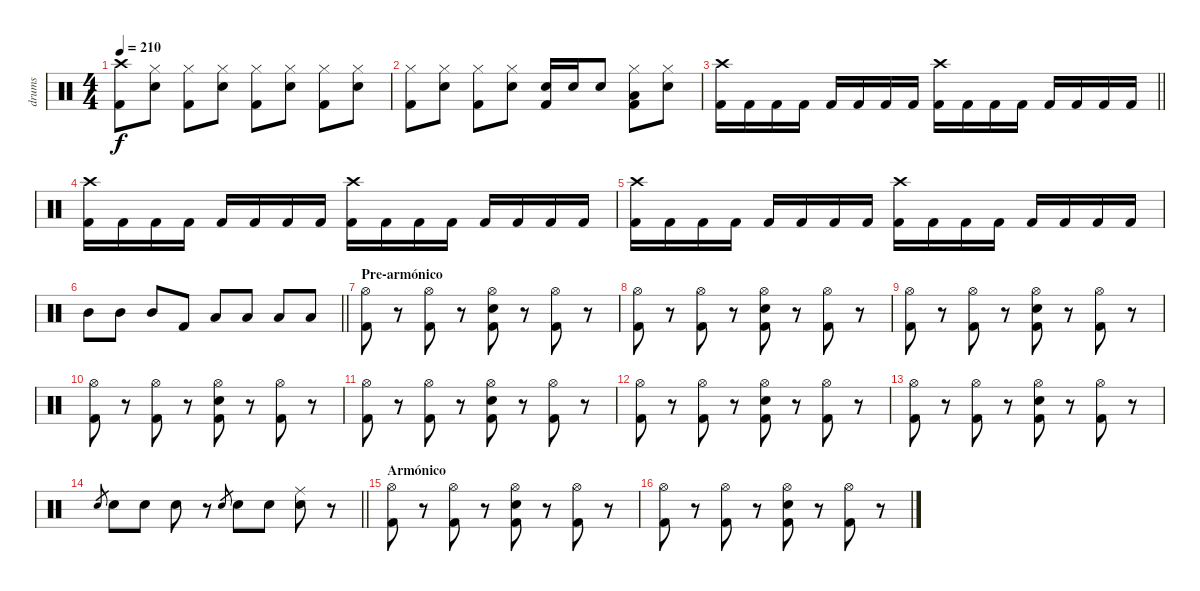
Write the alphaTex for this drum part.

\track ("drums" "drums") {instrument percussion}
\staff {score}
\articulation defaults
\ts (4 4)
\tempo 210
\clef neutral
\ks c
("Crash high (hit)" "Kick (hit) 2").8{dy f} ("Hi-Hat (closed)" "Electric Snare (hit)").8 ("Hi-Hat (closed)" "Kick (hit) 2").8 ("Hi-Hat (closed)" "Electric Snare (hit)").8 ("Hi-Hat (closed)" "Kick (hit) 2").8 ("Hi-Hat (closed)" "Electric Snare (hit)").8 ("Hi-Hat (closed)" "Kick (hit) 2").8 ("Hi-Hat (closed)" "Electric Snare (hit)").8 |
("Hi-Hat (closed)" "Kick (hit) 2").8 ("Hi-Hat (closed)" "Electric Snare (hit)").8 ("Hi-Hat (closed)" "Kick (hit) 2").8 ("Hi-Hat (closed)" "Electric Snare (hit)").8 ("Electric Snare (hit)" "Kick (hit) 2").16 "Electric Snare (hit)".16 "Electric Snare (hit)".8 ("Hi-Hat (closed)" "Low Floor Tom (hit)" "Kick (hit) 2").8 ("Hi-Hat (closed)" "Electric Snare (hit)").8 |
\barLineRight lightlight
("Crash high (hit)" "Kick (hit) 2").16 "Kick (hit) 2".16 "Kick (hit) 2".16 "Kick (hit) 2".16 "Kick (hit) 2".16 "Kick (hit) 2".16 "Kick (hit) 2".16 "Kick (hit) 2".16 ("Crash high (hit)" "Kick (hit) 2").16 "Kick (hit) 2".16 "Kick (hit) 2".16 "Kick (hit) 2".16 "Kick (hit) 2".16 "Kick (hit) 2".16 "Kick (hit) 2".16 "Kick (hit) 2".16 |
("Crash high (hit)" "Kick (hit) 2").16 "Kick (hit) 2".16 "Kick (hit) 2".16 "Kick (hit) 2".16 "Kick (hit) 2".16 "Kick (hit) 2".16 "Kick (hit) 2".16 "Kick (hit) 2".16 ("Crash high (hit)" "Kick (hit) 2").16 "Kick (hit) 2".16 "Kick (hit) 2".16 "Kick (hit) 2".16 "Kick (hit) 2".16 "Kick (hit) 2".16 "Kick (hit) 2".16 "Kick (hit) 2".16 |
("Crash high (hit)" "Kick (hit) 2").16 "Kick (hit) 2".16 "Kick (hit) 2".16 "Kick (hit) 2".16 "Kick (hit) 2".16 "Kick (hit) 2".16 "Kick (hit) 2".16 "Kick (hit) 2".16 ("Crash high (hit)" "Kick (hit) 2").16 "Kick (hit) 2".16 "Kick (hit) 2".16 "Kick (hit) 2".16 "Kick (hit) 2".16 "Kick (hit) 2".16 "Kick (hit) 2".16 "Kick (hit) 2".16 |
\barLineRight lightlight "Mid Tom (hit)".8 "Mid Tom (hit)".8 "Mid Tom (hit)".8 "Kick (hit) 2".8 "Low Tom (hit)".8 "Low Tom (hit)".8 "Low Tom (hit)".8 "Low Tom (hit)".8
|
\section ("" "Pre-armónico")
("Hi-Hat (open)" "Kick (hit) 2").8 r.8 ("Hi-Hat (open)" "Kick (hit) 2").8 r.8 ("Hi-Hat (open)" "Electric Snare (hit)" "Kick (hit) 2").8 r.8 ("Hi-Hat (open)" "Kick (hit) 2").8 r.8 |
("Hi-Hat (open)" "Kick (hit) 2").8 r.8 ("Hi-Hat (open)" "Kick (hit) 2").8 r.8 ("Hi-Hat (open)" "Electric Snare (hit)" "Kick (hit) 2").8 r.8 ("Hi-Hat (open)" "Kick (hit) 2").8 r.8 |
("Hi-Hat (open)" "Kick (hit) 2").8 r.8 ("Hi-Hat (open)" "Kick (hit) 2").8 r.8 ("Hi-Hat (open)" "Electric Snare (hit)" "Kick (hit) 2").8 r.8 ("Hi-Hat (open)" "Kick (hit) 2").8 r.8 |
("Hi-Hat (open)" "Kick (hit) 2").8 r.8 ("Hi-Hat (open)" "Kick (hit) 2").8 r.8 ("Hi-Hat (open)" "Electric Snare (hit)" "Kick (hit) 2").8 r.8 ("Hi-Hat (open)" "Kick (hit) 2").8 r.8 |
("Hi-Hat (open)" "Kick (hit) 2").8 r.8 ("Hi-Hat (open)" "Kick (hit) 2").8 r.8 ("Hi-Hat (open)" "Electric Snare (hit)" "Kick (hit) 2").8 r.8 ("Hi-Hat (open)" "Kick (hit) 2").8 r.8 |
("Hi-Hat (open)" "Kick (hit) 2").8 r.8 ("Hi-Hat (open)" "Kick (hit) 2").8 r.8 ("Hi-Hat (open)" "Electric Snare (hit)" "Kick (hit) 2").8 r.8 ("Hi-Hat (open)" "Kick (hit) 2").8 r.8 |
("Hi-Hat (open)" "Kick (hit) 2").8 r.8 ("Hi-Hat (open)" "Kick (hit) 2").8 r.8 ("Hi-Hat (open)" "Electric Snare (hit)" "Kick (hit) 2").8 r.8 ("Hi-Hat (open)" "Kick (hit) 2").8 r.8 |
\barLineRight lightlight "Electric Snare (hit)".8{gr} "Electric Snare (hit)".8 "Electric Snare (hit)".8 "Electric Snare (hit)".8
r.8 "Electric Snare (hit)".8{gr} "Electric Snare (hit)".8 "Electric Snare (hit)".8 ("Ride (middle)" "Electric Snare (hit)").8 r.8 |
\section ("" "Armónico")
("Hi-Hat (open)" "Kick (hit) 2").8 r.8 ("Hi-Hat (open)" "Kick (hit) 2").8 r.8 ("Hi-Hat (open)" "Electric Snare (hit)" "Kick (hit) 2").8 r.8 ("Hi-Hat (open)" "Kick (hit) 2").8 r.8 |
("Hi-Hat (open)" "Kick (hit) 2").8 r.8 ("Hi-Hat (open)" "Kick (hit) 2").8 r.8 ("Hi-Hat (open)" "Electric Snare (hit)" "Kick (hit) 2").8 r.8 ("Hi-Hat (open)" "Kick (hit) 2").8 r.8
